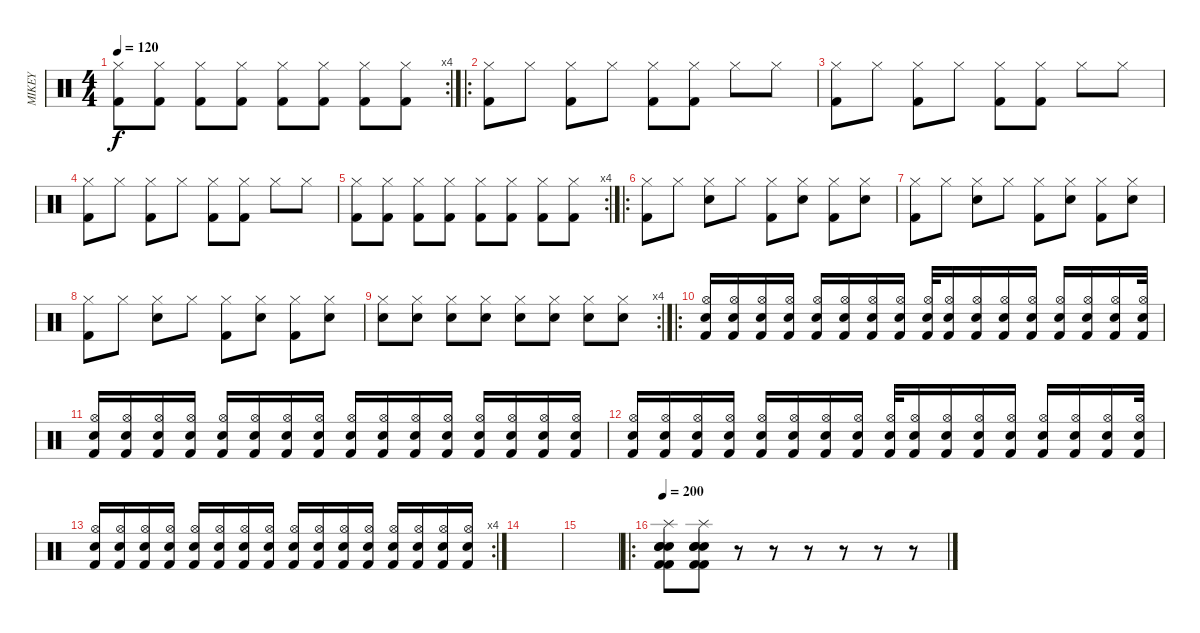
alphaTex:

\track ("MIKEY" "MIKEY") {instrument percussion}
\staff {score}
\articulation defaults
\rc 4
\ts (4 4)
\tempo 120
\clef neutral
\ks c
("Kick (hit) 2" "Hi-Hat (closed)").8{dy f} ("Kick (hit) 2" "Hi-Hat (closed)").8 ("Kick (hit) 2" "Hi-Hat (closed)").8 ("Kick (hit) 2" "Hi-Hat (closed)").8 ("Kick (hit) 2" "Hi-Hat (closed)").8 ("Kick (hit) 2" "Hi-Hat (closed)").8 ("Kick (hit) 2" "Hi-Hat (closed)").8 ("Kick (hit) 2" "Hi-Hat (closed)").8 |
\ro
("Kick (hit) 2" "Hi-Hat (closed)").8 "Hi-Hat (closed)".8 ("Kick (hit) 2" "Hi-Hat (closed)").8 "Hi-Hat (closed)".8 ("Kick (hit) 2" "Hi-Hat (closed)").8 ("Kick (hit) 2" "Hi-Hat (closed)").8 "Hi-Hat (closed)".8 "Hi-Hat (closed)".8 |
("Kick (hit) 2" "Hi-Hat (closed)").8 "Hi-Hat (closed)".8 ("Kick (hit) 2" "Hi-Hat (closed)").8 "Hi-Hat (closed)".8 ("Kick (hit) 2" "Hi-Hat (closed)").8 ("Kick (hit) 2" "Hi-Hat (closed)").8 "Hi-Hat (closed)".8 "Hi-Hat (closed)".8 |
("Kick (hit) 2" "Hi-Hat (closed)").8 "Hi-Hat (closed)".8 ("Kick (hit) 2" "Hi-Hat (closed)").8 "Hi-Hat (closed)".8 ("Kick (hit) 2" "Hi-Hat (closed)").8 ("Kick (hit) 2" "Hi-Hat (closed)").8 "Hi-Hat (closed)".8 "Hi-Hat (closed)".8 |
\rc 4
("Kick (hit) 2" "Hi-Hat (closed)").8 ("Kick (hit) 2" "Hi-Hat (closed)").8 ("Kick (hit) 2" "Hi-Hat (closed)").8 ("Kick (hit) 2" "Hi-Hat (closed)").8 ("Kick (hit) 2" "Hi-Hat (closed)").8 ("Kick (hit) 2" "Hi-Hat (closed)").8 ("Kick (hit) 2" "Hi-Hat (closed)").8 ("Kick (hit) 2" "Hi-Hat (closed)").8 |
\ro
("Kick (hit) 2" "Hi-Hat (closed)").8 "Hi-Hat (closed)".8 ("Snare (hit) 2" "Hi-Hat (closed)").8 "Hi-Hat (closed)".8 ("Kick (hit) 2" "Hi-Hat (closed)").8 ("Snare (hit) 2" "Hi-Hat (closed)").8 ("Kick (hit) 2" "Hi-Hat (closed)").8 ("Snare (hit) 2" "Hi-Hat (closed)").8 |
("Kick (hit) 2" "Hi-Hat (closed)").8 "Hi-Hat (closed)".8 ("Snare (hit) 2" "Hi-Hat (closed)").8 "Hi-Hat (closed)".8 ("Kick (hit) 2" "Hi-Hat (closed)").8 ("Snare (hit) 2" "Hi-Hat (closed)").8 ("Kick (hit) 2" "Hi-Hat (closed)").8 ("Snare (hit) 2" "Hi-Hat (closed)").8 |
("Kick (hit) 2" "Hi-Hat (closed)").8 "Hi-Hat (closed)".8 ("Snare (hit) 2" "Hi-Hat (closed)").8 "Hi-Hat (closed)".8 ("Kick (hit) 2" "Hi-Hat (closed)").8 ("Snare (hit) 2" "Hi-Hat (closed)").8 ("Kick (hit) 2" "Hi-Hat (closed)").8 ("Snare (hit) 2" "Hi-Hat (closed)").8 |
\rc 4
("Snare (hit) 2" "Hi-Hat (closed)").8 ("Snare (hit) 2" "Hi-Hat (closed)").8 ("Snare (hit) 2" "Hi-Hat (closed)").8 ("Snare (hit) 2" "Hi-Hat (closed)").8 ("Snare (hit) 2" "Hi-Hat (closed)").8 ("Snare (hit) 2" "Hi-Hat (closed)").8 ("Snare (hit) 2" "Hi-Hat (closed)").8 ("Snare (hit) 2" "Hi-Hat (closed)").8 |
\ro
("Hi-Hat (open)" "Kick (hit) 2" "Electric Snare (hit)").16 ("Hi-Hat (open)" "Kick (hit) 2" "Electric Snare (hit)").16 ("Hi-Hat (open)" "Kick (hit) 2" "Electric Snare (hit)").16 ("Hi-Hat (open)" "Kick (hit) 2" "Electric Snare (hit)").16 ("Hi-Hat (open)" "Kick (hit) 2" "Electric Snare (hit)").16 ("Hi-Hat (open)" "Kick (hit) 2" "Electric Snare (hit)").16 ("Hi-Hat (open)" "Kick (hit) 2" "Electric Snare (hit)").16 ("Hi-Hat (open)" "Kick (hit) 2" "Electric Snare (hit)").16 ("Hi-Hat (open)" "Kick (hit) 2" "Electric Snare (hit)").32 ("Hi-Hat (open)" "Kick (hit) 2" "Electric Snare (hit)").16 ("Hi-Hat (open)" "Kick (hit) 2" "Electric Snare (hit)").16 ("Hi-Hat (open)" "Kick (hit) 2" "Electric Snare (hit)").16 ("Hi-Hat (open)" "Kick (hit) 2" "Electric Snare (hit)").16 ("Hi-Hat (open)" "Kick (hit) 2" "Electric Snare (hit)").16 ("Hi-Hat (open)" "Kick (hit) 2" "Electric Snare (hit)").16 ("Hi-Hat (open)" "Kick (hit) 2" "Electric Snare (hit)").16 ("Hi-Hat (open)" "Kick (hit) 2" "Electric Snare (hit)").32 |
("Hi-Hat (open)" "Kick (hit) 2" "Electric Snare (hit)").16 ("Hi-Hat (open)" "Kick (hit) 2" "Electric Snare (hit)").16 ("Hi-Hat (open)" "Kick (hit) 2" "Electric Snare (hit)").16 ("Hi-Hat (open)" "Kick (hit) 2" "Electric Snare (hit)").16 ("Hi-Hat (open)" "Kick (hit) 2" "Electric Snare (hit)").16 ("Hi-Hat (open)" "Kick (hit) 2" "Electric Snare (hit)").16 ("Hi-Hat (open)" "Kick (hit) 2" "Electric Snare (hit)").16 ("Hi-Hat (open)" "Kick (hit) 2" "Electric Snare (hit)").16 ("Hi-Hat (open)" "Kick (hit) 2" "Electric Snare (hit)").16 ("Hi-Hat (open)" "Kick (hit) 2" "Electric Snare (hit)").16 ("Hi-Hat (open)" "Kick (hit) 2" "Electric Snare (hit)").16 ("Hi-Hat (open)" "Kick (hit) 2" "Electric Snare (hit)").16 ("Hi-Hat (open)" "Kick (hit) 2" "Electric Snare (hit)").16 ("Hi-Hat (open)" "Kick (hit) 2" "Electric Snare (hit)").16 ("Hi-Hat (open)" "Kick (hit) 2" "Electric Snare (hit)").16 ("Hi-Hat (open)" "Kick (hit) 2" "Electric Snare (hit)").16 |
("Hi-Hat (open)" "Kick (hit) 2" "Electric Snare (hit)").16 ("Hi-Hat (open)" "Kick (hit) 2" "Electric Snare (hit)").16 ("Hi-Hat (open)" "Kick (hit) 2" "Electric Snare (hit)").16 ("Hi-Hat (open)" "Kick (hit) 2" "Electric Snare (hit)").16 ("Hi-Hat (open)" "Kick (hit) 2" "Electric Snare (hit)").16 ("Hi-Hat (open)" "Kick (hit) 2" "Electric Snare (hit)").16 ("Hi-Hat (open)" "Kick (hit) 2" "Electric Snare (hit)").16 ("Hi-Hat (open)" "Kick (hit) 2" "Electric Snare (hit)").16 ("Hi-Hat (open)" "Kick (hit) 2" "Electric Snare (hit)").32 ("Hi-Hat (open)" "Kick (hit) 2" "Electric Snare (hit)").16 ("Hi-Hat (open)" "Kick (hit) 2" "Electric Snare (hit)").16 ("Hi-Hat (open)" "Kick (hit) 2" "Electric Snare (hit)").16 ("Hi-Hat (open)" "Kick (hit) 2" "Electric Snare (hit)").16 ("Hi-Hat (open)" "Kick (hit) 2" "Electric Snare (hit)").16 ("Hi-Hat (open)" "Kick (hit) 2" "Electric Snare (hit)").16 ("Hi-Hat (open)" "Kick (hit) 2" "Electric Snare (hit)").16 ("Hi-Hat (open)" "Kick (hit) 2" "Electric Snare (hit)").32 |
\rc 4
("Hi-Hat (open)" "Kick (hit) 2" "Electric Snare (hit)").16 ("Hi-Hat (open)" "Kick (hit) 2" "Electric Snare (hit)").16 ("Hi-Hat (open)" "Kick (hit) 2" "Electric Snare (hit)").16 ("Hi-Hat (open)" "Kick (hit) 2" "Electric Snare (hit)").16 ("Hi-Hat (open)" "Kick (hit) 2" "Electric Snare (hit)").16 ("Hi-Hat (open)" "Kick (hit) 2" "Electric Snare (hit)").16 ("Hi-Hat (open)" "Kick (hit) 2" "Electric Snare (hit)").16 ("Hi-Hat (open)" "Kick (hit) 2" "Electric Snare (hit)").16 ("Hi-Hat (open)" "Kick (hit) 2" "Electric Snare (hit)").16 ("Hi-Hat (open)" "Kick (hit) 2" "Electric Snare (hit)").16 ("Hi-Hat (open)" "Kick (hit) 2" "Electric Snare (hit)").16 ("Hi-Hat (open)" "Kick (hit) 2" "Electric Snare (hit)").16 ("Hi-Hat (open)" "Kick (hit) 2" "Electric Snare (hit)").16 ("Hi-Hat (open)" "Kick (hit) 2" "Electric Snare (hit)").16 ("Hi-Hat (open)" "Kick (hit) 2" "Electric Snare (hit)").16 ("Hi-Hat (open)" "Kick (hit) 2" "Electric Snare (hit)").16 |
|
|
\ro
\tempo 200
("Splash (hit)" "Snare (hit) 2" "Electric Snare (hit)" "Kick (hit) 2" "Snare (hit) 2" "Kick (hit) 2").8 ("Splash (hit)" "Snare (hit) 2" "Electric Snare (hit)" "Kick (hit) 2" "Snare (hit) 2" "Kick (hit) 2").8 r.8 r.8 r.8 r.8 r.8 r.8
